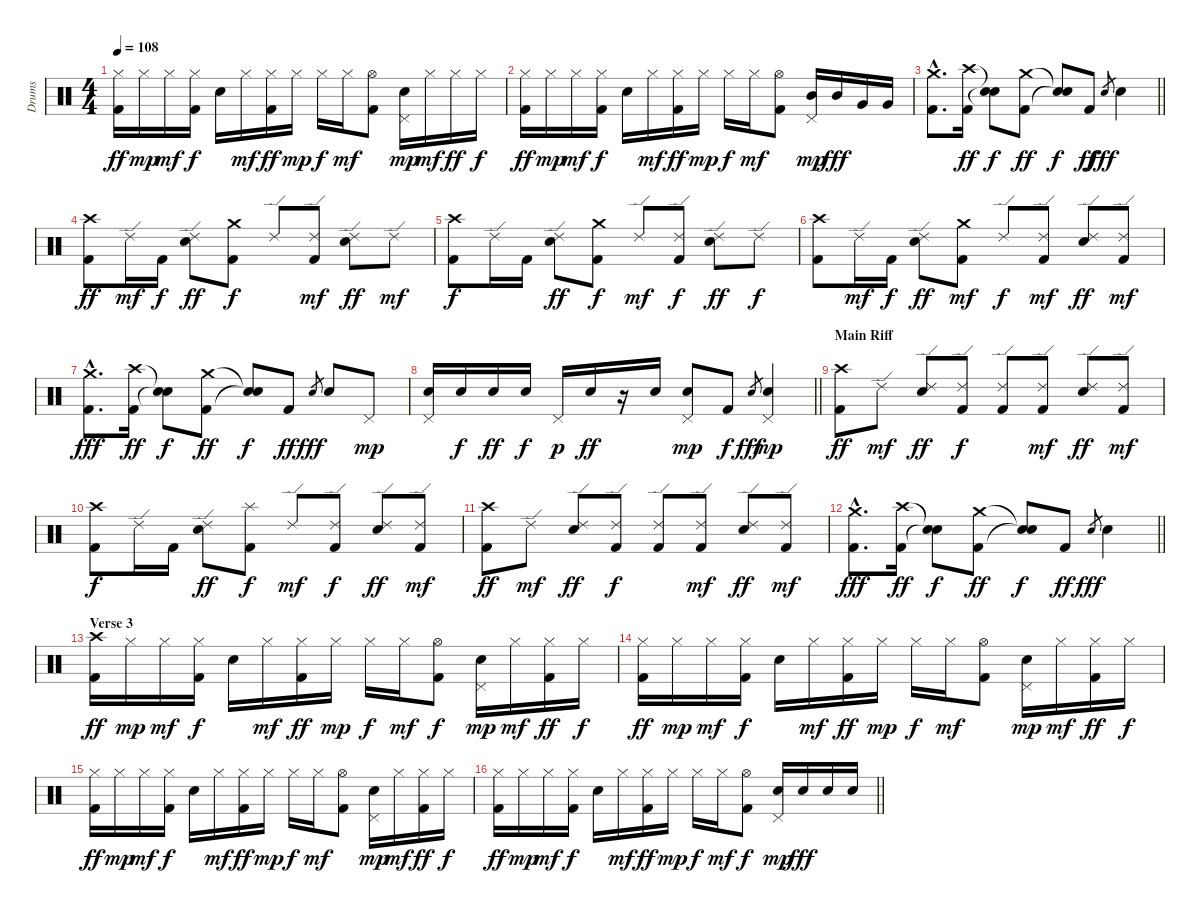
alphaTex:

\track ("Drums" "Drums") {instrument percussion}
\staff {score}
\articulation defaults
\ts (4 4)
\tempo 108
\clef neutral
\ks c
("Hi-Hat (closed)" "Kick (hit) 2").16{dy ff} "Hi-Hat (closed)".16{dy mp} "Hi-Hat (closed)".16{dy mf} ("Hi-Hat (closed)" "Kick (hit) 2").16{dy f} "Electric Snare (hit)".16 "Hi-Hat (closed)".16{dy mf} ("Hi-Hat (closed)" "Kick (hit) 2").16{dy ff} "Hi-Hat (closed)".16{dy mp} "Hi-Hat (closed)".16{dy f} "Hi-Hat (closed)".16{dy mf} ("Hi-Hat (open)" "Kick (hit) 2").8 ("Electric Snare (hit)" "Pedal Hi-Hat (hit)").16{dy mp} "Hi-Hat (closed)".16{dy mf} "Hi-Hat (closed)".16{dy ff} "Hi-Hat (closed)".16{dy f} |
("Hi-Hat (closed)" "Kick (hit) 2").16{dy ff} "Hi-Hat (closed)".16{dy mp} "Hi-Hat (closed)".16{dy mf} ("Hi-Hat (closed)" "Kick (hit) 2").16{dy f} "Electric Snare (hit)".16 "Hi-Hat (closed)".16{dy mf} ("Hi-Hat (closed)" "Kick (hit) 2").16{dy ff} "Hi-Hat (closed)".16{dy mp} "Hi-Hat (closed)".16{dy f} "Hi-Hat (closed)".16{dy mf} ("Hi-Hat (open)" "Kick (hit) 2").8 ("Mid Tom (hit)" "Pedal Hi-Hat (hit)").16{dy mp} "Mid Tom (hit)".16{dy fff} "Very Low Tom (hit)".16 "Very Low Tom (hit)".16 |
\barLineRight lightlight
("Crash medium (hit)"{hac} "Kick (hit) 2"{hac}).8{d} ("Crash high (hit)" "Kick (hit) 2").16{dy ff} ("Snare (hit)"{t} "Snare (hit)"{t}).8{dy f} ("Crash medium (hit)" "Kick (hit) 2").8{dy ff} ("Snare (hit)"{t} "Snare (hit)"{t}).8{dy f} "Kick (hit) 2".8{dy ff} "Electric Snare (hit)".8{gr dy fff} "Electric Snare (hit)".4 |
("Crash high (hit)" "Kick (hit) 2").8{dy ff} "Ride (edge) 2".16{dy mf} "Kick (hit) 2".16{dy f} ("Ride (edge) 2" "Electric Snare (hit)").8{dy ff} ("Crash medium (hit)" "Kick (hit) 2").8{dy f} "Ride (edge) 2".8 ("Ride (edge) 2" "Kick (hit) 2").8{dy mf} ("Ride (edge) 2" "Electric Snare (hit)").8{dy ff} "Ride (edge) 2".8{dy mf} |
("Crash high (hit)" "Kick (hit) 2").8{dy f} "Ride (edge) 2".16 "Kick (hit) 2".16 ("Ride (edge) 2" "Electric Snare (hit)").8{dy ff} ("Crash medium (hit)" "Kick (hit) 2").8{dy f} "Ride (edge) 2".8{dy mf} ("Ride (edge) 2" "Kick (hit) 2").8{dy f} ("Ride (edge) 2" "Electric Snare (hit)").8{dy ff} "Ride (edge) 2".8{dy f} |
("Crash high (hit)" "Kick (hit) 2").8 "Ride (edge) 2".16{dy mf} "Kick (hit) 2".16{dy f} ("Ride (edge) 2" "Electric Snare (hit)").8{dy ff} ("Crash medium (hit)" "Kick (hit) 2").8{dy mf} "Ride (edge) 2".8{dy f} ("Ride (edge) 2" "Kick (hit) 2").8{dy mf} ("Ride (edge) 2" "Electric Snare (hit)").8{dy ff} ("Ride (edge) 2" "Kick (hit) 2").8{dy mf} |
("Crash medium (hit)"{hac} "Kick (hit) 2"{hac}).8{d dy fff} ("Crash high (hit)" "Kick (hit) 2").16{dy ff} ("Snare (hit)"{t} "Snare (hit)"{t}).8{dy f} ("Crash medium (hit)" "Kick (hit) 2").8{dy ff} ("Snare (hit)"{t} "Snare (hit)"{t}).8{dy f} "Kick (hit) 2".8{dy ff} "Electric Snare (hit)".8{gr dy fff} "Electric Snare (hit)".8 "Pedal Hi-Hat (hit)".8{dy mp} |
\barLineRight lightlight
("Electric Snare (hit)" "Pedal Hi-Hat (hit)").16 "Electric Snare (hit)".16{dy f} "Electric Snare (hit)".16{dy ff} "Electric Snare (hit)".16{dy f} "Pedal Hi-Hat (hit)".16{dy p} "Electric Snare (hit)".16{dy ff} r.16 "Electric Snare (hit)".16 ("Electric Snare (hit)" "Pedal Hi-Hat (hit)").8{dy mp} "Kick (hit) 2".8{dy f} "Electric Snare (hit)"{sl}.8{gr dy fff} ("Electric Snare (hit)" "Pedal Hi-Hat (hit)").4{dy mp} |
\section ("" "Main Riff")
("Crash high (hit)" "Kick (hit) 2").8{dy ff} "Ride (edge) 2".8{dy mf} ("Ride (edge) 2" "Electric Snare (hit)").8{dy ff} ("Ride (edge) 2" "Kick (hit) 2").8{dy f} ("Ride (edge) 2" "Kick (hit) 2").8 ("Ride (edge) 2" "Kick (hit) 2").8{dy mf} ("Ride (edge) 2" "Electric Snare (hit)").8{dy ff} ("Ride (edge) 2" "Kick (hit) 2").8{dy mf} |
("Crash high (hit)" "Kick (hit) 2").8{dy f} "Ride (edge) 2".16 "Kick (hit) 2".16 ("Ride (edge) 2" "Electric Snare (hit)").8{dy ff} ("Splash (hit)" "Kick (hit) 2").8{dy f} "Ride (edge) 2".8{dy mf} ("Ride (edge) 2" "Kick (hit) 2").8{dy f} ("Ride (edge) 2" "Electric Snare (hit)").8{dy ff} ("Ride (edge) 2" "Kick (hit) 2").8{dy mf} |
("Crash high (hit)" "Kick (hit) 2").8{dy ff} "Ride (edge) 2".8{dy mf} ("Ride (edge) 2" "Electric Snare (hit)").8{dy ff} ("Ride (edge) 2" "Kick (hit) 2").8{dy f} ("Ride (edge) 2" "Kick (hit) 2").8 ("Ride (edge) 2" "Kick (hit) 2").8{dy mf} ("Ride (edge) 2" "Electric Snare (hit)").8{dy ff} ("Ride (edge) 2" "Kick (hit) 2").8{dy mf} |
\barLineRight lightlight
("Crash medium (hit)"{hac} "Kick (hit) 2"{hac}).8{d dy fff} ("Crash high (hit)" "Kick (hit) 2").16{dy ff} ("Snare (hit)"{t} "Snare (hit)"{t}).8{dy f} ("Crash medium (hit)" "Kick (hit) 2").8{dy ff} ("Snare (hit)"{t} "Snare (hit)"{t}).8{dy f} "Kick (hit) 2".8{dy ff} "Electric Snare (hit)".8{gr dy fff} "Electric Snare (hit)".4 |
\section ("" "Verse 3")
("Crash high (hit)" "Kick (hit) 2").16{dy ff} "Hi-Hat (closed)".16{dy mp} "Hi-Hat (closed)".16{dy mf} ("Hi-Hat (closed)" "Kick (hit) 2").16{dy f} "Electric Snare (hit)".16 "Hi-Hat (closed)".16{dy mf} ("Hi-Hat (closed)" "Kick (hit) 2").16{dy ff} "Hi-Hat (closed)".16{dy mp} "Hi-Hat (closed)".16{dy f} "Hi-Hat (closed)".16{dy mf} ("Hi-Hat (open)" "Kick (hit) 2").8{dy f} ("Electric Snare (hit)" "Pedal Hi-Hat (hit)").16{dy mp} "Hi-Hat (closed)".16{dy mf} ("Hi-Hat (closed)" "Kick (hit) 2").16{dy ff} "Hi-Hat (closed)".16{dy f} |
("Hi-Hat (closed)" "Kick (hit) 2").16{dy ff} "Hi-Hat (closed)".16{dy mp} "Hi-Hat (closed)".16{dy mf} ("Hi-Hat (closed)" "Kick (hit) 2").16{dy f} "Electric Snare (hit)".16 "Hi-Hat (closed)".16{dy mf} ("Hi-Hat (closed)" "Kick (hit) 2").16{dy ff} "Hi-Hat (closed)".16{dy mp} "Hi-Hat (closed)".16{dy f} "Hi-Hat (closed)".16{dy mf} ("Hi-Hat (open)" "Kick (hit) 2").8 ("Electric Snare (hit)" "Pedal Hi-Hat (hit)").16{dy mp} "Hi-Hat (closed)".16{dy mf} ("Hi-Hat (closed)" "Kick (hit) 2").16{dy ff} "Hi-Hat (closed)".16{dy f} |
("Hi-Hat (closed)" "Kick (hit) 2").16{dy ff} "Hi-Hat (closed)".16{dy mp} "Hi-Hat (closed)".16{dy mf} ("Hi-Hat (closed)" "Kick (hit) 2").16{dy f} "Electric Snare (hit)".16 "Hi-Hat (closed)".16{dy mf} ("Hi-Hat (closed)" "Kick (hit) 2").16{dy ff} "Hi-Hat (closed)".16{dy mp} "Hi-Hat (closed)".16{dy f} "Hi-Hat (closed)".16{dy mf} ("Hi-Hat (open)" "Kick (hit) 2").8 ("Electric Snare (hit)" "Pedal Hi-Hat (hit)").16{dy mp} "Hi-Hat (closed)".16{dy mf} ("Hi-Hat (closed)" "Kick (hit) 2").16{dy ff} "Hi-Hat (closed)".16{dy f} |
\barLineRight lightlight
("Hi-Hat (closed)" "Kick (hit) 2").16{dy ff} "Hi-Hat (closed)".16{dy mp} "Hi-Hat (closed)".16{dy mf} ("Hi-Hat (closed)" "Kick (hit) 2").16{dy f} "Electric Snare (hit)".16 "Hi-Hat (closed)".16{dy mf} ("Hi-Hat (closed)" "Kick (hit) 2").16{dy ff} "Hi-Hat (closed)".16{dy mp} "Hi-Hat (closed)".16{dy f} "Hi-Hat (closed)".16{dy mf} ("Hi-Hat (open)" "Kick (hit) 2").8{dy f} ("Electric Snare (hit)" "Pedal Hi-Hat (hit)").16{dy mp} "Electric Snare (hit)".16{dy fff} "Electric Snare (hit)".16 "Electric Snare (hit)".16
